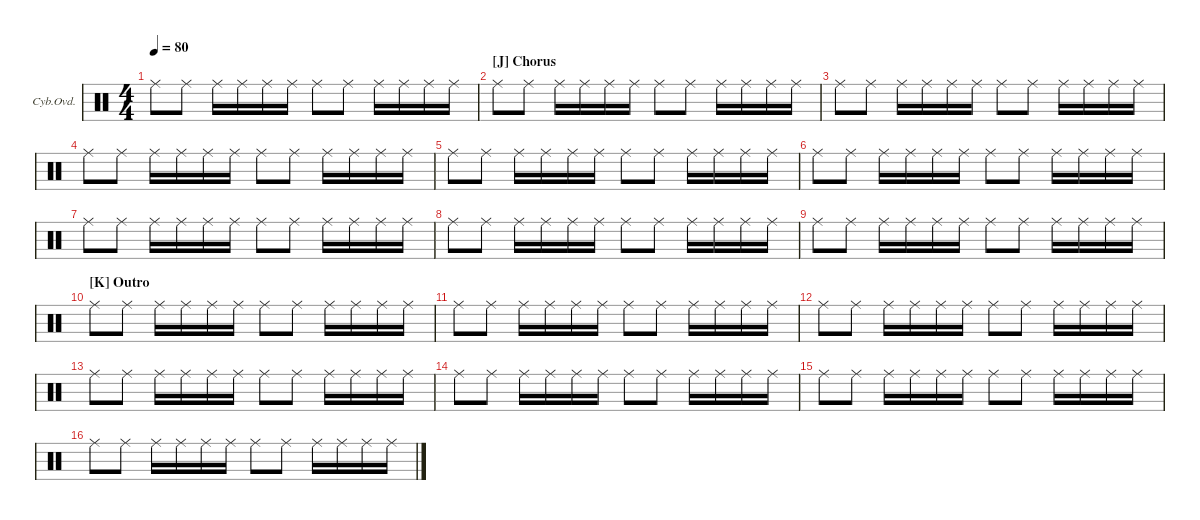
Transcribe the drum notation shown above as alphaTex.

\defaultSystemsLayout 4
\hideDynamics
\bracketExtendMode groupsimilarinstruments
\firstSystemTrackNameOrientation horizontal
\otherSystemsTrackNameOrientation horizontal
\track ("Cymbal Overdub" "Cyb.Ovd.") {multiBarRest instrument percussion}
\staff {score}
\articulation defaults
\ts (4 4)
\tempo 80
\clef neutral
\ks c "Ride (middle)".8{dy p} "Ride (middle)".8 "Ride (middle)".16 "Ride (middle)".16 "Ride (middle)".16 "Ride (middle)".16 "Ride (middle)".8 "Ride (middle)".8 "Ride (middle)".16 "Ride (middle)".16 "Ride (middle)".16 "Ride (middle)".16
|
\section ("J" "Chorus")
"Ride (middle)".8 "Ride (middle)".8 "Ride (middle)".16 "Ride (middle)".16 "Ride (middle)".16 "Ride (middle)".16 "Ride (middle)".8 "Ride (middle)".8 "Ride (middle)".16 "Ride (middle)".16 "Ride (middle)".16 "Ride (middle)".16 |
"Ride (middle)".8 "Ride (middle)".8 "Ride (middle)".16 "Ride (middle)".16 "Ride (middle)".16 "Ride (middle)".16 "Ride (middle)".8 "Ride (middle)".8 "Ride (middle)".16 "Ride (middle)".16 "Ride (middle)".16 "Ride (middle)".16 |
"Ride (middle)".8 "Ride (middle)".8 "Ride (middle)".16 "Ride (middle)".16 "Ride (middle)".16 "Ride (middle)".16 "Ride (middle)".8 "Ride (middle)".8 "Ride (middle)".16 "Ride (middle)".16 "Ride (middle)".16 "Ride (middle)".16 |
"Ride (middle)".8 "Ride (middle)".8 "Ride (middle)".16 "Ride (middle)".16 "Ride (middle)".16 "Ride (middle)".16 "Ride (middle)".8 "Ride (middle)".8 "Ride (middle)".16 "Ride (middle)".16 "Ride (middle)".16 "Ride (middle)".16 |
"Ride (middle)".8 "Ride (middle)".8 "Ride (middle)".16 "Ride (middle)".16 "Ride (middle)".16 "Ride (middle)".16 "Ride (middle)".8 "Ride (middle)".8 "Ride (middle)".16 "Ride (middle)".16 "Ride (middle)".16 "Ride (middle)".16 |
"Ride (middle)".8 "Ride (middle)".8 "Ride (middle)".16 "Ride (middle)".16 "Ride (middle)".16 "Ride (middle)".16 "Ride (middle)".8 "Ride (middle)".8 "Ride (middle)".16 "Ride (middle)".16 "Ride (middle)".16 "Ride (middle)".16 |
"Ride (middle)".8 "Ride (middle)".8 "Ride (middle)".16 "Ride (middle)".16 "Ride (middle)".16 "Ride (middle)".16 "Ride (middle)".8 "Ride (middle)".8 "Ride (middle)".16 "Ride (middle)".16 "Ride (middle)".16 "Ride (middle)".16 |
"Ride (middle)".8 "Ride (middle)".8 "Ride (middle)".16 "Ride (middle)".16 "Ride (middle)".16 "Ride (middle)".16 "Ride (middle)".8 "Ride (middle)".8 "Ride (middle)".16 "Ride (middle)".16 "Ride (middle)".16 "Ride (middle)".16 |
\section ("K" "Outro")
"Ride (middle)".8 "Ride (middle)".8 "Ride (middle)".16 "Ride (middle)".16 "Ride (middle)".16 "Ride (middle)".16 "Ride (middle)".8 "Ride (middle)".8 "Ride (middle)".16 "Ride (middle)".16 "Ride (middle)".16 "Ride (middle)".16 |
"Ride (middle)".8 "Ride (middle)".8 "Ride (middle)".16 "Ride (middle)".16 "Ride (middle)".16 "Ride (middle)".16 "Ride (middle)".8 "Ride (middle)".8 "Ride (middle)".16 "Ride (middle)".16 "Ride (middle)".16 "Ride (middle)".16 |
"Ride (middle)".8 "Ride (middle)".8 "Ride (middle)".16 "Ride (middle)".16 "Ride (middle)".16 "Ride (middle)".16 "Ride (middle)".8 "Ride (middle)".8 "Ride (middle)".16 "Ride (middle)".16 "Ride (middle)".16 "Ride (middle)".16 |
"Ride (middle)".8 "Ride (middle)".8 "Ride (middle)".16 "Ride (middle)".16 "Ride (middle)".16 "Ride (middle)".16 "Ride (middle)".8 "Ride (middle)".8 "Ride (middle)".16 "Ride (middle)".16 "Ride (middle)".16 "Ride (middle)".16 |
"Ride (middle)".8 "Ride (middle)".8 "Ride (middle)".16 "Ride (middle)".16 "Ride (middle)".16 "Ride (middle)".16 "Ride (middle)".8 "Ride (middle)".8 "Ride (middle)".16 "Ride (middle)".16 "Ride (middle)".16 "Ride (middle)".16 |
"Ride (middle)".8 "Ride (middle)".8 "Ride (middle)".16 "Ride (middle)".16 "Ride (middle)".16 "Ride (middle)".16 "Ride (middle)".8 "Ride (middle)".8 "Ride (middle)".16 "Ride (middle)".16 "Ride (middle)".16 "Ride (middle)".16 |
"Ride (middle)".8 "Ride (middle)".8 "Ride (middle)".16 "Ride (middle)".16 "Ride (middle)".16 "Ride (middle)".16 "Ride (middle)".8 "Ride (middle)".8 "Ride (middle)".16 "Ride (middle)".16 "Ride (middle)".16 "Ride (middle)".16
